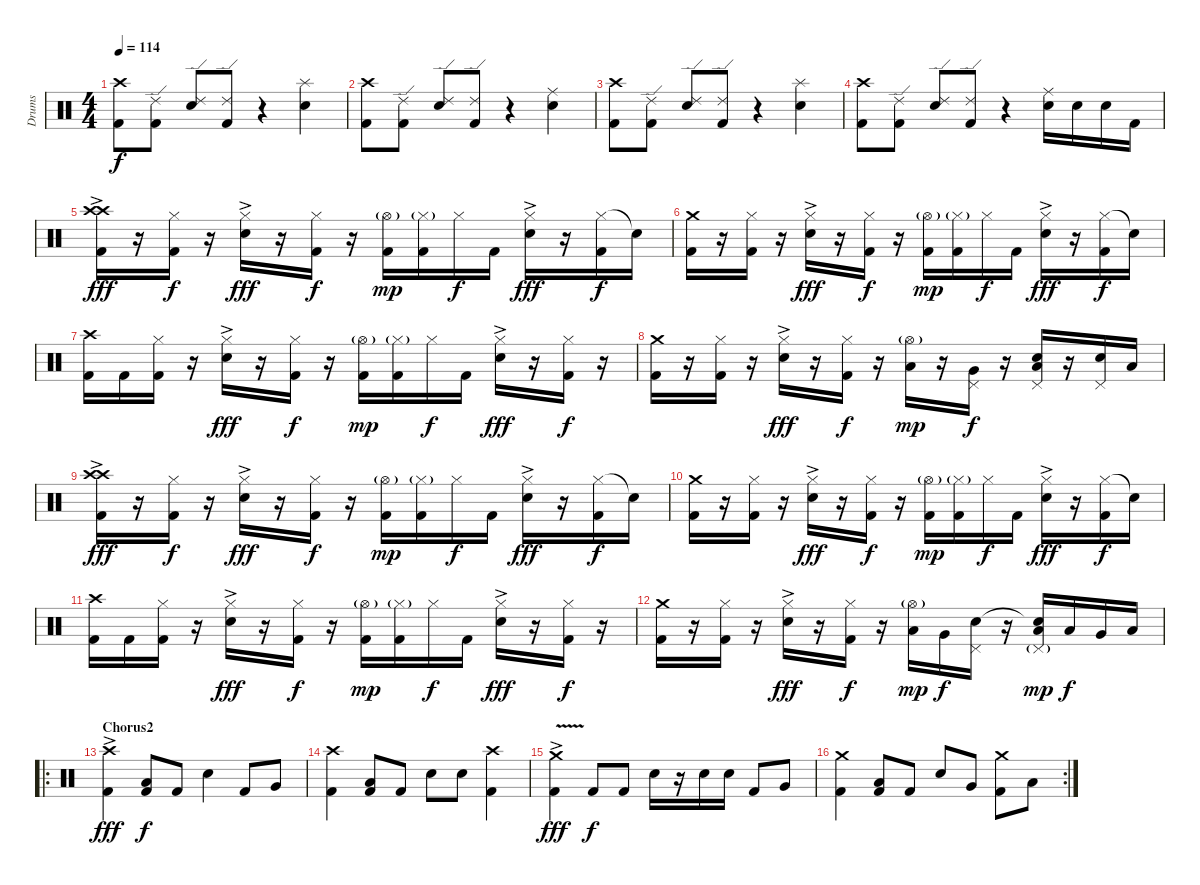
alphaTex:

\track ("Drums" "Drums") {instrument percussion}
\staff {score}
\articulation defaults
\ts (4 4)
\tempo 114
\clef neutral
\ks c
("Crash high (hit)" "Kick (hit) 2").8{dy f} ("Ride (edge) 2" "Kick (hit) 2").8 ("Ride (edge) 2" "Electric Snare (hit)").8 ("Ride (edge) 2" "Kick (hit) 2").8 r.4 ("Splash (hit)" "Electric Snare (hit)").4 |
("Crash high (hit)" "Kick (hit) 2").8 ("Ride (edge) 2" "Kick (hit) 2").8 ("Ride (edge) 2" "Electric Snare (hit)").8 ("Ride (edge) 2" "Kick (hit) 2").8 r.4 ("Ride (middle)" "Electric Snare (hit)").4 |
("Crash high (hit)" "Kick (hit) 2").8 ("Ride (edge) 2" "Kick (hit) 2").8 ("Ride (edge) 2" "Electric Snare (hit)").8 ("Ride (edge) 2" "Kick (hit) 2").8 r.4 ("Splash (hit)" "Electric Snare (hit)").4 |
("Crash high (hit)" "Kick (hit) 2").8 ("Ride (edge) 2" "Kick (hit) 2").8 ("Ride (edge) 2" "Electric Snare (hit)").8 ("Ride (edge) 2" "Kick (hit) 2").8 r.4 ("Ride (middle)" "Electric Snare (hit)").16 "Electric Snare (hit)".16 "Electric Snare (hit)".16 "Kick (hit) 2".16 |
("Crash high (hit)"{ac} "Crash high (hit)"{ac} "Kick (hit) 2").16{dy fff} r.16 ("Hi-Hat (closed)" "Kick (hit) 2").16{dy f} r.16 ("Hi-Hat (closed)" "Electric Snare (hit)"{ac}).16{dy fff} r.16 ("Hi-Hat (closed)" "Kick (hit) 2").16{dy f} r.16 ("Hi-Hat (open)"{g} "Kick (hit) 2").16{dy mp} ("Hi-Hat (closed)"{g} "Kick (hit) 2").16 "Hi-Hat (closed)".16{dy f} "Kick (hit) 2".16 ("Hi-Hat (closed)" "Electric Snare (hit)"{ac}).16{dy fff} r.16 ("Hi-Hat (closed)" "Kick (hit) 2").16{dy f} "Snare (hit)"{t}.16 |
("Crash medium (hit)" "Kick (hit) 2").16 r.16 ("Hi-Hat (closed)" "Kick (hit) 2").16 r.16 ("Hi-Hat (closed)" "Electric Snare (hit)"{ac}).16{dy fff} r.16 ("Hi-Hat (closed)" "Kick (hit) 2").16{dy f} r.16 ("Hi-Hat (open)"{g} "Kick (hit) 2").16{dy mp} ("Hi-Hat (closed)"{g} "Kick (hit) 2").16 "Hi-Hat (closed)".16{dy f} "Kick (hit) 2".16 ("Hi-Hat (closed)" "Electric Snare (hit)"{ac}).16{dy fff} r.16 ("Hi-Hat (closed)" "Kick (hit) 2").16{dy f} "Snare (hit)"{t}.16 |
("Crash high (hit)" "Kick (hit) 2").16 "Kick (hit) 2".16 ("Hi-Hat (closed)" "Kick (hit) 2").16 r.16 ("Hi-Hat (closed)" "Electric Snare (hit)"{ac}).16{dy fff} r.16 ("Hi-Hat (closed)" "Kick (hit) 2").16{dy f} r.16 ("Hi-Hat (open)"{g} "Kick (hit) 2").16{dy mp} ("Hi-Hat (closed)"{g} "Kick (hit) 2").16 "Hi-Hat (closed)".16{dy f} "Kick (hit) 2".16 ("Hi-Hat (closed)" "Electric Snare (hit)"{ac}).16{dy fff} r.16 ("Hi-Hat (closed)" "Kick (hit) 2").16{dy f} r.16 |
("Crash medium (hit)" "Kick (hit) 2").16 r.16 ("Hi-Hat (closed)" "Kick (hit) 2").16 r.16 ("Hi-Hat (closed)" "Electric Snare (hit)"{ac}).16{dy fff} r.16 ("Hi-Hat (closed)" "Kick (hit) 2").16{dy f} r.16 ("Hi-Hat (open)"{g} "Low Floor Tom (hit)").16{dy mp} r.16 ("Pedal Hi-Hat (hit)" "Very Low Tom (hit)").16{dy f} r.16 ("Pedal Hi-Hat (hit)" "Electric Snare (hit)" "Low Floor Tom (hit)").16 r.16 ("Pedal Hi-Hat (hit)" "Electric Snare (hit)").16 "Low Floor Tom (hit)".16 |
("Crash high (hit)"{ac} "Crash high (hit)"{ac} "Kick (hit) 2").16{dy fff} r.16 ("Hi-Hat (closed)" "Kick (hit) 2").16{dy f} r.16 ("Hi-Hat (closed)" "Electric Snare (hit)"{ac}).16{dy fff} r.16 ("Hi-Hat (closed)" "Kick (hit) 2").16{dy f} r.16 ("Hi-Hat (open)"{g} "Kick (hit) 2").16{dy mp} ("Hi-Hat (closed)"{g} "Kick (hit) 2").16 "Hi-Hat (closed)".16{dy f} "Kick (hit) 2".16 ("Hi-Hat (closed)" "Electric Snare (hit)"{ac}).16{dy fff} r.16 ("Hi-Hat (closed)" "Kick (hit) 2").16{dy f} "Snare (hit)"{t}.16 |
("Crash medium (hit)" "Kick (hit) 2").16 r.16 ("Hi-Hat (closed)" "Kick (hit) 2").16 r.16 ("Hi-Hat (closed)" "Electric Snare (hit)"{ac}).16{dy fff} r.16 ("Hi-Hat (closed)" "Kick (hit) 2").16{dy f} r.16 ("Hi-Hat (open)"{g} "Kick (hit) 2").16{dy mp} ("Hi-Hat (closed)"{g} "Kick (hit) 2").16 "Hi-Hat (closed)".16{dy f} "Kick (hit) 2".16 ("Hi-Hat (closed)" "Electric Snare (hit)"{ac}).16{dy fff} r.16 ("Hi-Hat (closed)" "Kick (hit) 2").16{dy f} "Snare (hit)"{t}.16 |
("Crash high (hit)" "Kick (hit) 2").16 "Kick (hit) 2".16 ("Hi-Hat (closed)" "Kick (hit) 2").16 r.16 ("Hi-Hat (closed)" "Electric Snare (hit)"{ac}).16{dy fff} r.16 ("Hi-Hat (closed)" "Kick (hit) 2").16{dy f} r.16 ("Hi-Hat (open)"{g} "Kick (hit) 2").16{dy mp} ("Hi-Hat (closed)"{g} "Kick (hit) 2").16 "Hi-Hat (closed)".16{dy f} "Kick (hit) 2".16 ("Hi-Hat (closed)" "Electric Snare (hit)"{ac}).16{dy fff} r.16 ("Hi-Hat (closed)" "Kick (hit) 2").16{dy f} r.16 |
("Crash medium (hit)" "Kick (hit) 2").16 r.16 ("Hi-Hat (closed)" "Kick (hit) 2").16 r.16 ("Hi-Hat (closed)" "Electric Snare (hit)"{ac}).16{dy fff} r.16 ("Hi-Hat (closed)" "Kick (hit) 2").16{dy f} r.16 ("Hi-Hat (open)"{g} "Low Floor Tom (hit)").16{dy mp} "Very Low Tom (hit)".16{dy f} ("Pedal Hi-Hat (hit)" "Electric Snare (hit)"{tr (40 32)}).16 r.16 ("Pedal Hi-Hat (hit)"{g} "Electric Snare (hit)"{t} "Low Floor Tom (hit)").16{dy mp} "Low Tom (hit)".16{dy f} "Very Low Tom (hit)".16 "Low Floor Tom (hit)".16 |
\ro
\section ("" "Chorus2")
("Crash high (hit)"{ac} "Kick (hit) 2").4{dy fff} ("Low Floor Tom (hit)" "Kick (hit) 2").8{dy f} "Kick (hit) 2".8 "Snare (hit) 2".4 "Kick (hit) 2".8 "Very Low Tom (hit)".8 |
("Crash high (hit)" "Kick (hit) 2").4 ("Low Floor Tom (hit)" "Kick (hit) 2").8 "Kick (hit) 2".8 "Snare (hit) 2".8 "Snare (hit) 2".8 ("Crash high (hit)" "Kick (hit) 2").4 |
("Crash medium (hit)"{v ac} "Kick (hit) 2").4{dy fff} "Kick (hit) 2".8{dy f} "Kick (hit) 2".8 "Snare (hit) 2".16 r.16 "Snare (hit) 2".16 "Snare (hit) 2".16 "Kick (hit) 2".8 "Very Low Tom (hit)".8 |
\rc 2
("Crash medium (hit)" "Kick (hit) 2").4 ("Low Floor Tom (hit)" "Kick (hit) 2").8 "Kick (hit) 2".8 "Snare (hit) 2".8 "Very Low Tom (hit)".8 ("Crash medium (hit)" "Kick (hit) 2").8 "Low Floor Tom (hit)".8
